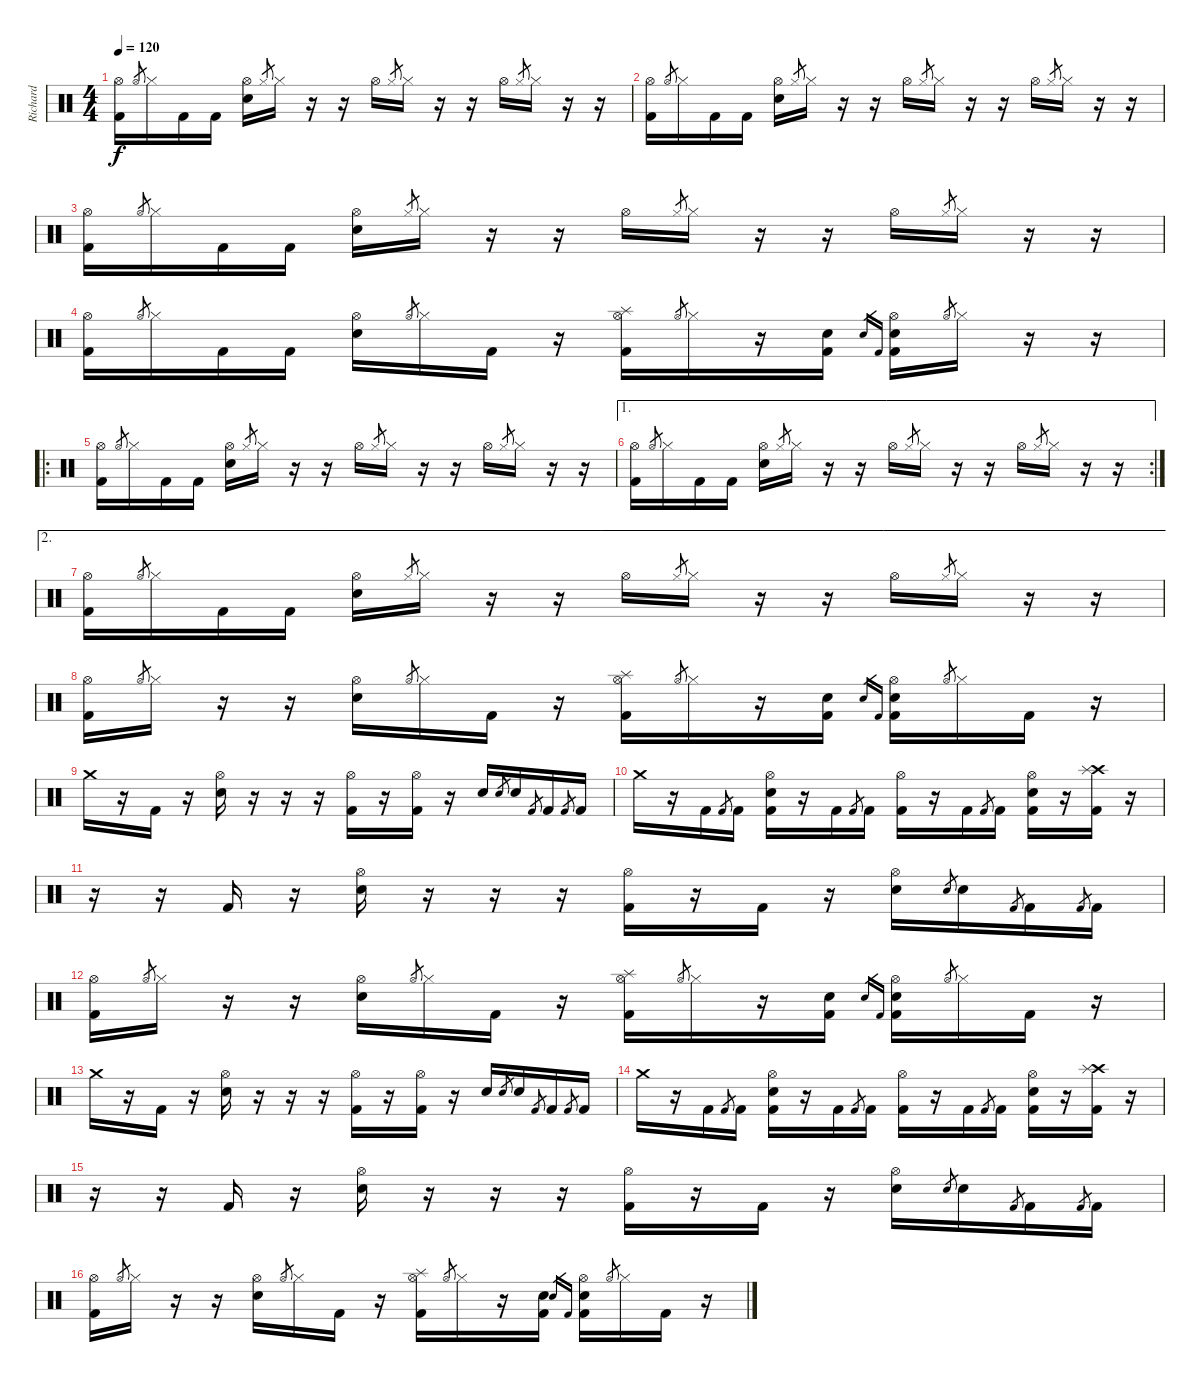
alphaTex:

\track ("Richard " "Richard ") {instrument percussion}
\staff {score}
\articulation defaults
\ts (4 4)
\tempo 120
\clef neutral
\ks c
("Hi-Hat (open)" "Kick (hit) 2").16{dy f} "Hi-Hat (open)".8{gr} "Hi-Hat (closed)".16 "Kick (hit) 2".16 "Kick (hit) 2".16 ("Hi-Hat (open)" "Snare (hit) 2").16 "Hi-Hat (closed)".8{gr} "Hi-Hat (closed)".16 r.16 r.16 "Hi-Hat (open)".16 "Hi-Hat (closed)".8{gr} "Hi-Hat (closed)".16 r.16 r.16 "Hi-Hat (open)".16 "Hi-Hat (closed)".8{gr} "Hi-Hat (closed)".16 r.16 r.16 |
("Hi-Hat (open)" "Kick (hit) 2").16 "Hi-Hat (open)".8{gr} "Hi-Hat (closed)".16 "Kick (hit) 2".16 "Kick (hit) 2".16 ("Hi-Hat (open)" "Snare (hit) 2").16 "Hi-Hat (closed)".8{gr} "Hi-Hat (closed)".16 r.16 r.16 "Hi-Hat (open)".16 "Hi-Hat (closed)".8{gr} "Hi-Hat (closed)".16 r.16 r.16 "Hi-Hat (open)".16 "Hi-Hat (closed)".8{gr} "Hi-Hat (closed)".16 r.16 r.16 |
("Hi-Hat (open)" "Kick (hit) 2").16 "Hi-Hat (open)".8{gr} "Hi-Hat (closed)".16 "Kick (hit) 2".16 "Kick (hit) 2".16 ("Hi-Hat (open)" "Snare (hit) 2").16 "Hi-Hat (closed)".8{gr} "Hi-Hat (closed)".16 r.16 r.16 "Hi-Hat (open)".16 "Hi-Hat (closed)".8{gr} "Hi-Hat (closed)".16 r.16 r.16 "Hi-Hat (open)".16 "Hi-Hat (closed)".8{gr} "Hi-Hat (closed)".16 r.16 r.16 |
("Hi-Hat (open)" "Kick (hit) 2").16 "Hi-Hat (open)".8{gr} "Hi-Hat (closed)".16 "Kick (hit) 2".16 "Kick (hit) 2".16 ("Hi-Hat (open)" "Snare (hit) 2").16 "Hi-Hat (open)".8{gr} "Hi-Hat (closed)".16 "Kick (hit) 2".16 r.16 ("Hi-Hat (open)" "Splash (hit)" "Kick (hit) 2").16 "Hi-Hat (open)".8{gr} "Hi-Hat (closed)".16 r.16 ("Snare (hit) 2" "Kick (hit) 2").16 "Snare (hit) 2".16{gr} "Kick (hit) 2".16{gr} ("Hi-Hat (open)" "Snare (hit) 2" "Kick (hit) 2").16 "Hi-Hat (open)".8{gr} "Hi-Hat (closed)".16 r.16 r.16 |
\ro
("Hi-Hat (open)" "Kick (hit) 2").16 "Hi-Hat (open)".8{gr} "Hi-Hat (closed)".16 "Kick (hit) 2".16 "Kick (hit) 2".16 ("Hi-Hat (open)" "Snare (hit) 2").16 "Hi-Hat (closed)".8{gr} "Hi-Hat (closed)".16 r.16 r.16 "Hi-Hat (open)".16 "Hi-Hat (closed)".8{gr} "Hi-Hat (closed)".16 r.16 r.16 "Hi-Hat (open)".16 "Hi-Hat (closed)".8{gr} "Hi-Hat (closed)".16 r.16 r.16 |
\ae 1
\rc 2
("Hi-Hat (open)" "Kick (hit) 2").16 "Hi-Hat (open)".8{gr} "Hi-Hat (closed)".16 "Kick (hit) 2".16 "Kick (hit) 2".16 ("Hi-Hat (open)" "Snare (hit) 2").16 "Hi-Hat (closed)".8{gr} "Hi-Hat (closed)".16 r.16 r.16 "Hi-Hat (open)".16 "Hi-Hat (closed)".8{gr} "Hi-Hat (closed)".16 r.16 r.16 "Hi-Hat (open)".16 "Hi-Hat (closed)".8{gr} "Hi-Hat (closed)".16 r.16 r.16 |
\ae 2
("Hi-Hat (open)" "Kick (hit) 2").16 "Hi-Hat (open)".8{gr} "Hi-Hat (closed)".16 "Kick (hit) 2".16 "Kick (hit) 2".16 ("Hi-Hat (open)" "Snare (hit) 2").16 "Hi-Hat (closed)".8{gr} "Hi-Hat (closed)".16 r.16 r.16 "Hi-Hat (open)".16 "Hi-Hat (closed)".8{gr} "Hi-Hat (closed)".16 r.16 r.16 "Hi-Hat (open)".16 "Hi-Hat (closed)".8{gr} "Hi-Hat (closed)".16 r.16 r.16 |
("Hi-Hat (open)" "Kick (hit) 2").16 "Hi-Hat (open)".8{gr} "Hi-Hat (closed)".16 r.16 r.16 ("Hi-Hat (open)" "Snare (hit) 2").16 "Hi-Hat (open)".8{gr} "Hi-Hat (closed)".16 "Kick (hit) 2".16 r.16 ("Hi-Hat (open)" "Splash (hit)" "Kick (hit) 2").16 "Hi-Hat (open)".8{gr} "Hi-Hat (closed)".16 r.16 ("Snare (hit) 2" "Kick (hit) 2").16 "Snare (hit) 2".16{gr} "Kick (hit) 2".16{gr} ("Hi-Hat (open)" "Snare (hit) 2" "Kick (hit) 2").16 "Hi-Hat (open)".8{gr} "Hi-Hat (closed)".16 "Kick (hit) 2".16 r.16 |
"Crash medium (hit)".16 r.16 "Kick (hit) 2".16 r.16 ("Hi-Hat (open)" "Snare (hit) 2").16 r.16 r.16 r.16 ("Hi-Hat (open)" "Kick (hit) 2").16 r.16 ("Hi-Hat (open)" "Kick (hit) 2").16 r.16 "Snare (hit) 2".16 "Snare (hit) 2".8{gr} "Snare (hit) 2".16 "Kick (hit) 2".8{gr} "Kick (hit) 2".16 "Kick (hit) 2".8{gr} "Kick (hit) 2".16 |
"Crash medium (hit)".16 r.16 "Kick (hit) 2".16 "Kick (hit) 2".8{gr} "Kick (hit) 2".16 ("Hi-Hat (open)" "Snare (hit) 2" "Kick (hit) 2").16 r.16 "Kick (hit) 2".16 "Kick (hit) 2".8{gr} "Kick (hit) 2".16 ("Hi-Hat (open)" "Kick (hit) 2").16 r.16 "Kick (hit) 2".16 "Kick (hit) 2".8{gr} "Kick (hit) 2".16 ("Hi-Hat (open)" "Snare (hit) 2" "Kick (hit) 2").16 r.16 ("Crash high (hit)" "Splash (hit)" "Kick (hit) 2").16 r.16 |
r.16 r.16 "Kick (hit) 2".16 r.16 ("Hi-Hat (open)" "Snare (hit) 2").16 r.16 r.16 r.16 ("Hi-Hat (open)" "Kick (hit) 2").16 r.16 "Kick (hit) 2".16 r.16 ("Hi-Hat (open)" "Snare (hit) 2").16 "Snare (hit) 2".8{gr} "Snare (hit) 2".16 "Kick (hit) 2".8{gr} "Kick (hit) 2".16 "Kick (hit) 2".8{gr} "Kick (hit) 2".16 |
("Hi-Hat (open)" "Kick (hit) 2").16 "Hi-Hat (open)".8{gr} "Hi-Hat (closed)".16 r.16 r.16 ("Hi-Hat (open)" "Snare (hit) 2").16 "Hi-Hat (open)".8{gr} "Hi-Hat (closed)".16 "Kick (hit) 2".16 r.16 ("Hi-Hat (open)" "Splash (hit)" "Kick (hit) 2").16 "Hi-Hat (open)".8{gr} "Hi-Hat (closed)".16 r.16 ("Snare (hit) 2" "Kick (hit) 2").16 "Snare (hit) 2".16{gr} "Kick (hit) 2".16{gr} ("Hi-Hat (open)" "Snare (hit) 2" "Kick (hit) 2").16 "Hi-Hat (open)".8{gr} "Hi-Hat (closed)".16 "Kick (hit) 2".16 r.16 |
"Crash medium (hit)".16 r.16 "Kick (hit) 2".16 r.16 ("Hi-Hat (open)" "Snare (hit) 2").16 r.16 r.16 r.16 ("Hi-Hat (open)" "Kick (hit) 2").16 r.16 ("Hi-Hat (open)" "Kick (hit) 2").16 r.16 "Snare (hit) 2".16 "Snare (hit) 2".8{gr} "Snare (hit) 2".16 "Kick (hit) 2".8{gr} "Kick (hit) 2".16 "Kick (hit) 2".8{gr} "Kick (hit) 2".16 |
"Crash medium (hit)".16 r.16 "Kick (hit) 2".16 "Kick (hit) 2".8{gr} "Kick (hit) 2".16 ("Hi-Hat (open)" "Snare (hit) 2" "Kick (hit) 2").16 r.16 "Kick (hit) 2".16 "Kick (hit) 2".8{gr} "Kick (hit) 2".16 ("Hi-Hat (open)" "Kick (hit) 2").16 r.16 "Kick (hit) 2".16 "Kick (hit) 2".8{gr} "Kick (hit) 2".16 ("Hi-Hat (open)" "Snare (hit) 2" "Kick (hit) 2").16 r.16 ("Crash high (hit)" "Splash (hit)" "Kick (hit) 2").16 r.16 |
r.16 r.16 "Kick (hit) 2".16 r.16 ("Hi-Hat (open)" "Snare (hit) 2").16 r.16 r.16 r.16 ("Hi-Hat (open)" "Kick (hit) 2").16 r.16 "Kick (hit) 2".16 r.16 ("Hi-Hat (open)" "Snare (hit) 2").16 "Snare (hit) 2".8{gr} "Snare (hit) 2".16 "Kick (hit) 2".8{gr} "Kick (hit) 2".16 "Kick (hit) 2".8{gr} "Kick (hit) 2".16 |
("Hi-Hat (open)" "Kick (hit) 2").16 "Hi-Hat (open)".8{gr} "Hi-Hat (closed)".16 r.16 r.16 ("Hi-Hat (open)" "Snare (hit) 2").16 "Hi-Hat (open)".8{gr} "Hi-Hat (closed)".16 "Kick (hit) 2".16 r.16 ("Hi-Hat (open)" "Splash (hit)" "Kick (hit) 2").16 "Hi-Hat (open)".8{gr} "Hi-Hat (closed)".16 r.16 ("Snare (hit) 2" "Kick (hit) 2").16 "Snare (hit) 2".16{gr} "Kick (hit) 2".16{gr} ("Hi-Hat (open)" "Snare (hit) 2" "Kick (hit) 2").16 "Hi-Hat (open)".8{gr} "Hi-Hat (closed)".16 "Kick (hit) 2".16 r.16
